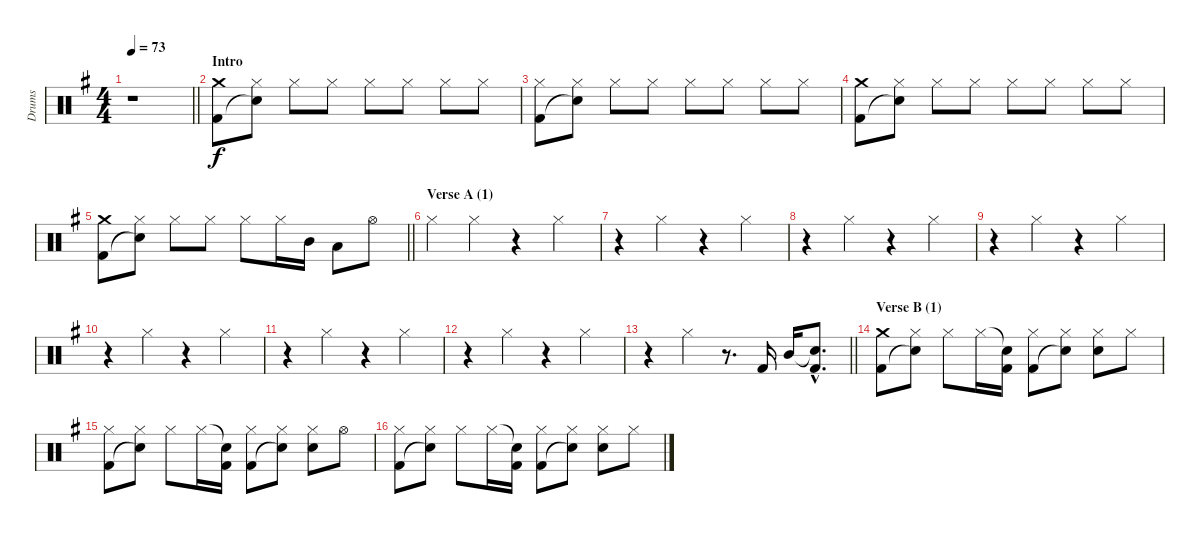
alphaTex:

\track ("Drums" "Drums") {instrument percussion}
\staff {score}
\articulation defaults
\ts (4 4)
\tempo 73
\clef neutral
\barLineRight lightlight
\ks g
r.1{dy f} |
\section ("" "Intro")
("Crash medium (hit)" "Kick (hit) 2").8 ("Hi-Hat (closed)" "Snare (hit)"{t}).8 "Hi-Hat (closed)".8 "Hi-Hat (closed)".8 "Hi-Hat (closed)".8 "Hi-Hat (closed)".8 "Hi-Hat (closed)".8 "Hi-Hat (closed)".8 |
("Hi-Hat (closed)" "Kick (hit) 2").8 ("Hi-Hat (closed)" "Snare (hit)"{t}).8 "Hi-Hat (closed)".8 "Hi-Hat (closed)".8 "Hi-Hat (closed)".8 "Hi-Hat (closed)".8 "Hi-Hat (closed)".8 "Hi-Hat (closed)".8 |
("Crash medium (hit)" "Kick (hit) 2").8 ("Hi-Hat (closed)" "Snare (hit)"{t}).8 "Hi-Hat (closed)".8 "Hi-Hat (closed)".8 "Hi-Hat (closed)".8 "Hi-Hat (closed)".8 "Hi-Hat (closed)".8 "Hi-Hat (closed)".8 |
\barLineRight lightlight
("Crash medium (hit)" "Kick (hit) 2").8 ("Hi-Hat (closed)" "Snare (hit)"{t}).8 "Hi-Hat (closed)".8 "Hi-Hat (closed)".8 "Hi-Hat (closed)".8 "Hi-Hat (closed)".16 "Mid Tom (hit)".16 "Low Tom (hit)".8 "Hi-Hat (open)".8 |
\section ("" "Verse A (1)")
"Hi-Hat (closed)".4 "Hi-Hat (closed)".4 r.4 "Hi-Hat (closed)".4 |
r.4 "Hi-Hat (closed)".4 r.4 "Hi-Hat (closed)".4 |
r.4 "Hi-Hat (closed)".4 r.4 "Hi-Hat (closed)".4 |
r.4 "Hi-Hat (closed)".4 r.4 "Hi-Hat (closed)".4 |
r.4 "Hi-Hat (closed)".4 r.4 "Hi-Hat (closed)".4 |
r.4 "Hi-Hat (closed)".4 r.4 "Hi-Hat (closed)".4 |
r.4 "Hi-Hat (closed)".4 r.4 "Hi-Hat (closed)".4 |
\barLineRight lightlight
r.4 "Hi-Hat (closed)".4 r.8{d} "Kick (hit) 2".16 "Mid Tom (hit)".16 ("Snare (hit)"{hac t} "Kick (hit) 2"{hac}).8{d} |
\section ("" "Verse B (1)")
("Crash medium (hit)" "Kick (hit) 2").8 ("Hi-Hat (closed)" "Snare (hit)"{t}).8 "Hi-Hat (closed)".8 "Hi-Hat (closed)".16 ("Snare (hit)"{t} "Kick (hit) 2").16 ("Hi-Hat (closed)" "Kick (hit) 2").8 ("Hi-Hat (closed)" "Snare (hit)"{t}).8 ("Hi-Hat (closed)" "Electric Snare (hit)").8 "Hi-Hat (closed)".8 |
("Hi-Hat (closed)" "Kick (hit) 2").8 ("Hi-Hat (closed)" "Snare (hit)"{t}).8 "Hi-Hat (closed)".8 "Hi-Hat (closed)".16 ("Snare (hit)"{t} "Kick (hit) 2").16 ("Hi-Hat (closed)" "Kick (hit) 2").8 ("Hi-Hat (closed)" "Snare (hit)"{t}).8 ("Hi-Hat (closed)" "Electric Snare (hit)").8 "Hi-Hat (open)".8 |
("Hi-Hat (closed)" "Kick (hit) 2").8 ("Hi-Hat (closed)" "Snare (hit)"{t}).8 "Hi-Hat (closed)".8 "Hi-Hat (closed)".16 ("Snare (hit)"{t} "Kick (hit) 2").16 ("Hi-Hat (closed)" "Kick (hit) 2").8 ("Hi-Hat (closed)" "Snare (hit)"{t}).8 ("Hi-Hat (closed)" "Electric Snare (hit)").8 "Hi-Hat (closed)".8
